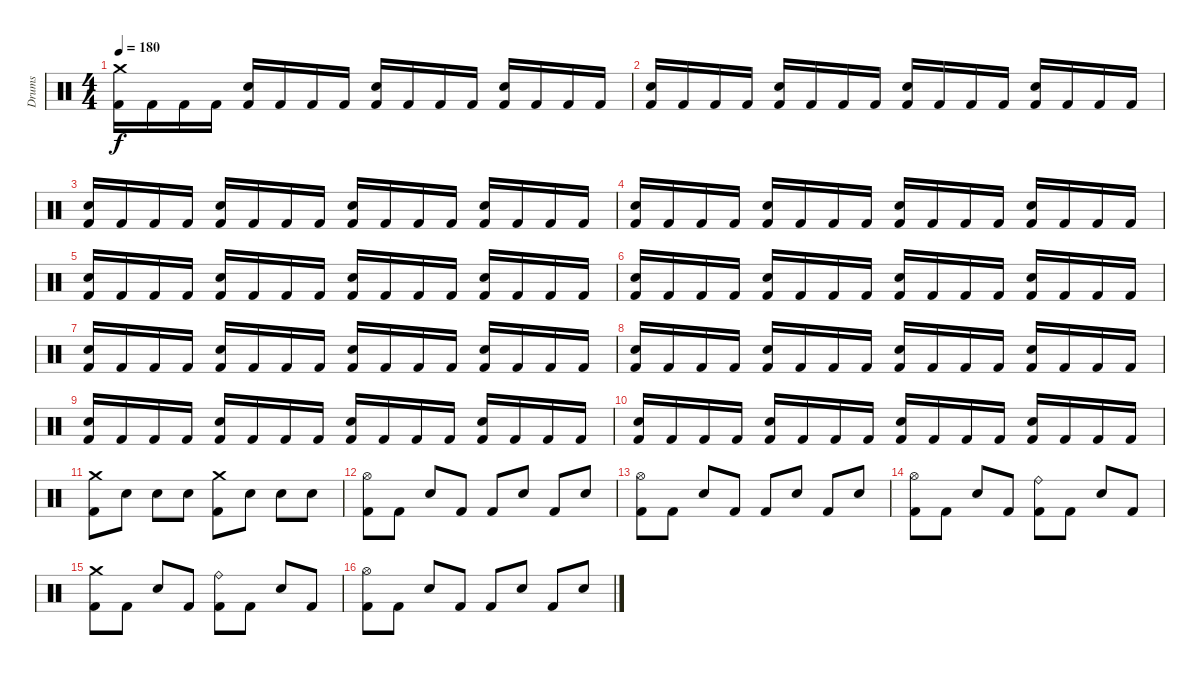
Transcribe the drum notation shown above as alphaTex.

\track ("Drums" "Drums") {instrument percussion}
\staff {score}
\articulation defaults
\ts (4 4)
\tempo 180
\clef neutral
\ks c
("Crash medium (hit)" "Kick (hit) 2").16{dy f} "Kick (hit) 2".16 "Kick (hit) 2".16 "Kick (hit) 2".16 ("Snare (hit) 2" "Kick (hit) 2").16 "Kick (hit) 2".16 "Kick (hit) 2".16 "Kick (hit) 2".16 ("Snare (hit) 2" "Kick (hit) 2").16 "Kick (hit) 2".16 "Kick (hit) 2".16 "Kick (hit) 2".16 ("Snare (hit) 2" "Kick (hit) 2").16 "Kick (hit) 2".16 "Kick (hit) 2".16 "Kick (hit) 2".16 |
("Snare (hit) 2" "Kick (hit) 2").16 "Kick (hit) 2".16 "Kick (hit) 2".16 "Kick (hit) 2".16 ("Snare (hit) 2" "Kick (hit) 2").16 "Kick (hit) 2".16 "Kick (hit) 2".16 "Kick (hit) 2".16 ("Snare (hit) 2" "Kick (hit) 2").16 "Kick (hit) 2".16 "Kick (hit) 2".16 "Kick (hit) 2".16 ("Snare (hit) 2" "Kick (hit) 2").16 "Kick (hit) 2".16 "Kick (hit) 2".16 "Kick (hit) 2".16 |
("Snare (hit) 2" "Kick (hit) 2").16 "Kick (hit) 2".16 "Kick (hit) 2".16 "Kick (hit) 2".16 ("Snare (hit) 2" "Kick (hit) 2").16 "Kick (hit) 2".16 "Kick (hit) 2".16 "Kick (hit) 2".16 ("Snare (hit) 2" "Kick (hit) 2").16 "Kick (hit) 2".16 "Kick (hit) 2".16 "Kick (hit) 2".16 ("Snare (hit) 2" "Kick (hit) 2").16 "Kick (hit) 2".16 "Kick (hit) 2".16 "Kick (hit) 2".16 |
("Snare (hit) 2" "Kick (hit) 2").16 "Kick (hit) 2".16 "Kick (hit) 2".16 "Kick (hit) 2".16 ("Snare (hit) 2" "Kick (hit) 2").16 "Kick (hit) 2".16 "Kick (hit) 2".16 "Kick (hit) 2".16 ("Snare (hit) 2" "Kick (hit) 2").16 "Kick (hit) 2".16 "Kick (hit) 2".16 "Kick (hit) 2".16 ("Snare (hit) 2" "Kick (hit) 2").16 "Kick (hit) 2".16 "Kick (hit) 2".16 "Kick (hit) 2".16 |
("Snare (hit) 2" "Kick (hit) 2").16 "Kick (hit) 2".16 "Kick (hit) 2".16 "Kick (hit) 2".16 ("Snare (hit) 2" "Kick (hit) 2").16 "Kick (hit) 2".16 "Kick (hit) 2".16 "Kick (hit) 2".16 ("Snare (hit) 2" "Kick (hit) 2").16 "Kick (hit) 2".16 "Kick (hit) 2".16 "Kick (hit) 2".16 ("Snare (hit) 2" "Kick (hit) 2").16 "Kick (hit) 2".16 "Kick (hit) 2".16 "Kick (hit) 2".16 |
("Snare (hit) 2" "Kick (hit) 2").16 "Kick (hit) 2".16 "Kick (hit) 2".16 "Kick (hit) 2".16 ("Snare (hit) 2" "Kick (hit) 2").16 "Kick (hit) 2".16 "Kick (hit) 2".16 "Kick (hit) 2".16 ("Snare (hit) 2" "Kick (hit) 2").16 "Kick (hit) 2".16 "Kick (hit) 2".16 "Kick (hit) 2".16 ("Snare (hit) 2" "Kick (hit) 2").16 "Kick (hit) 2".16 "Kick (hit) 2".16 "Kick (hit) 2".16 |
("Snare (hit) 2" "Kick (hit) 2").16 "Kick (hit) 2".16 "Kick (hit) 2".16 "Kick (hit) 2".16 ("Snare (hit) 2" "Kick (hit) 2").16 "Kick (hit) 2".16 "Kick (hit) 2".16 "Kick (hit) 2".16 ("Snare (hit) 2" "Kick (hit) 2").16 "Kick (hit) 2".16 "Kick (hit) 2".16 "Kick (hit) 2".16 ("Snare (hit) 2" "Kick (hit) 2").16 "Kick (hit) 2".16 "Kick (hit) 2".16 "Kick (hit) 2".16 |
("Snare (hit) 2" "Kick (hit) 2").16 "Kick (hit) 2".16 "Kick (hit) 2".16 "Kick (hit) 2".16 ("Snare (hit) 2" "Kick (hit) 2").16 "Kick (hit) 2".16 "Kick (hit) 2".16 "Kick (hit) 2".16 ("Snare (hit) 2" "Kick (hit) 2").16 "Kick (hit) 2".16 "Kick (hit) 2".16 "Kick (hit) 2".16 ("Snare (hit) 2" "Kick (hit) 2").16 "Kick (hit) 2".16 "Kick (hit) 2".16 "Kick (hit) 2".16 |
("Snare (hit) 2" "Kick (hit) 2").16 "Kick (hit) 2".16 "Kick (hit) 2".16 "Kick (hit) 2".16 ("Snare (hit) 2" "Kick (hit) 2").16 "Kick (hit) 2".16 "Kick (hit) 2".16 "Kick (hit) 2".16 ("Snare (hit) 2" "Kick (hit) 2").16 "Kick (hit) 2".16 "Kick (hit) 2".16 "Kick (hit) 2".16 ("Snare (hit) 2" "Kick (hit) 2").16 "Kick (hit) 2".16 "Kick (hit) 2".16 "Kick (hit) 2".16 |
("Snare (hit) 2" "Kick (hit) 2").16 "Kick (hit) 2".16 "Kick (hit) 2".16 "Kick (hit) 2".16 ("Snare (hit) 2" "Kick (hit) 2").16 "Kick (hit) 2".16 "Kick (hit) 2".16 "Kick (hit) 2".16 ("Snare (hit) 2" "Kick (hit) 2").16 "Kick (hit) 2".16 "Kick (hit) 2".16 "Kick (hit) 2".16 ("Snare (hit) 2" "Kick (hit) 2").16 "Kick (hit) 2".16 "Kick (hit) 2".16 "Kick (hit) 2".16 |
("Crash medium (hit)" "Kick (hit) 2").8 "Snare (hit) 2".8 "Snare (hit) 2".8 "Snare (hit) 2".8 ("Crash medium (hit)" "Kick (hit) 2").8 "Snare (hit) 2".8 "Snare (hit) 2".8 "Snare (hit) 2".8 |
("Hi-Hat (open)" "Kick (hit) 2").8 "Kick (hit) 2".8 "Snare (hit) 2".8 "Kick (hit) 2".8 "Kick (hit) 2".8 "Snare (hit) 2".8 "Kick (hit) 2".8 "Snare (hit) 2".8 |
("Hi-Hat (open)" "Kick (hit) 2").8 "Kick (hit) 2".8 "Snare (hit) 2".8 "Kick (hit) 2".8 "Kick (hit) 2".8 "Snare (hit) 2".8 "Kick (hit) 2".8 "Snare (hit) 2".8 |
("Hi-Hat (open)" "Kick (hit) 2").8 "Kick (hit) 2".8 "Snare (hit) 2".8 "Kick (hit) 2".8 ("Ride (bell)" "Kick (hit) 2").8 "Kick (hit) 2".8 "Snare (hit) 2".8 "Kick (hit) 2".8 |
("Crash medium (hit)" "Kick (hit) 2").8 "Kick (hit) 2".8 "Snare (hit) 2".8 "Kick (hit) 2".8 ("Ride (bell)" "Kick (hit) 2").8 "Kick (hit) 2".8 "Snare (hit) 2".8 "Kick (hit) 2".8 |
("Hi-Hat (open)" "Kick (hit) 2").8 "Kick (hit) 2".8 "Snare (hit) 2".8 "Kick (hit) 2".8 "Kick (hit) 2".8 "Snare (hit) 2".8 "Kick (hit) 2".8 "Snare (hit) 2".8
